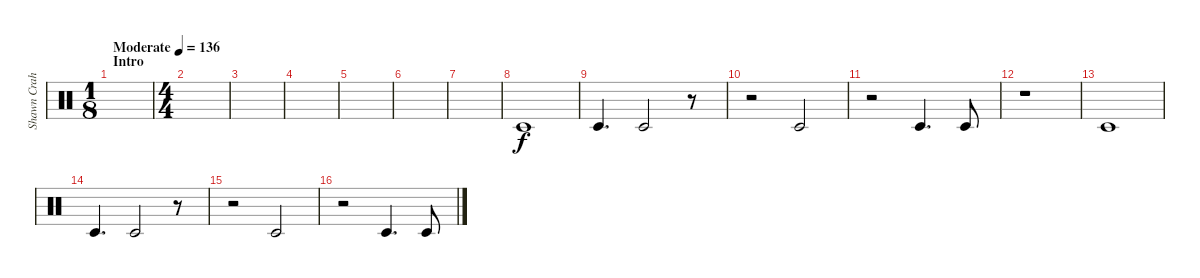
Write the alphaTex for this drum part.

\track ("Shawn Crahan" "Shawn Crah") {instrument percussion}
\staff {score}
\articulation defaults
\ts (1 8)
\section ("" "Intro")
\tempo (136 "Moderate")
\clef neutral
\ks c
|
\ts (4 4)
|
|
|
|
|
|
"Timbale low (hit)".1 |
"Timbale low (hit)".4{d} "Timbale low (hit)".2 r.8 |
r.2 "Timbale low (hit)".2 |
r.2 "Timbale low (hit)".4{d} "Timbale low (hit)".8 |
r.1 |
"Timbale low (hit)".1 |
"Timbale low (hit)".4{d} "Timbale low (hit)".2 r.8 |
r.2 "Timbale low (hit)".2 |
r.2 "Timbale low (hit)".4{d} "Timbale low (hit)".8
